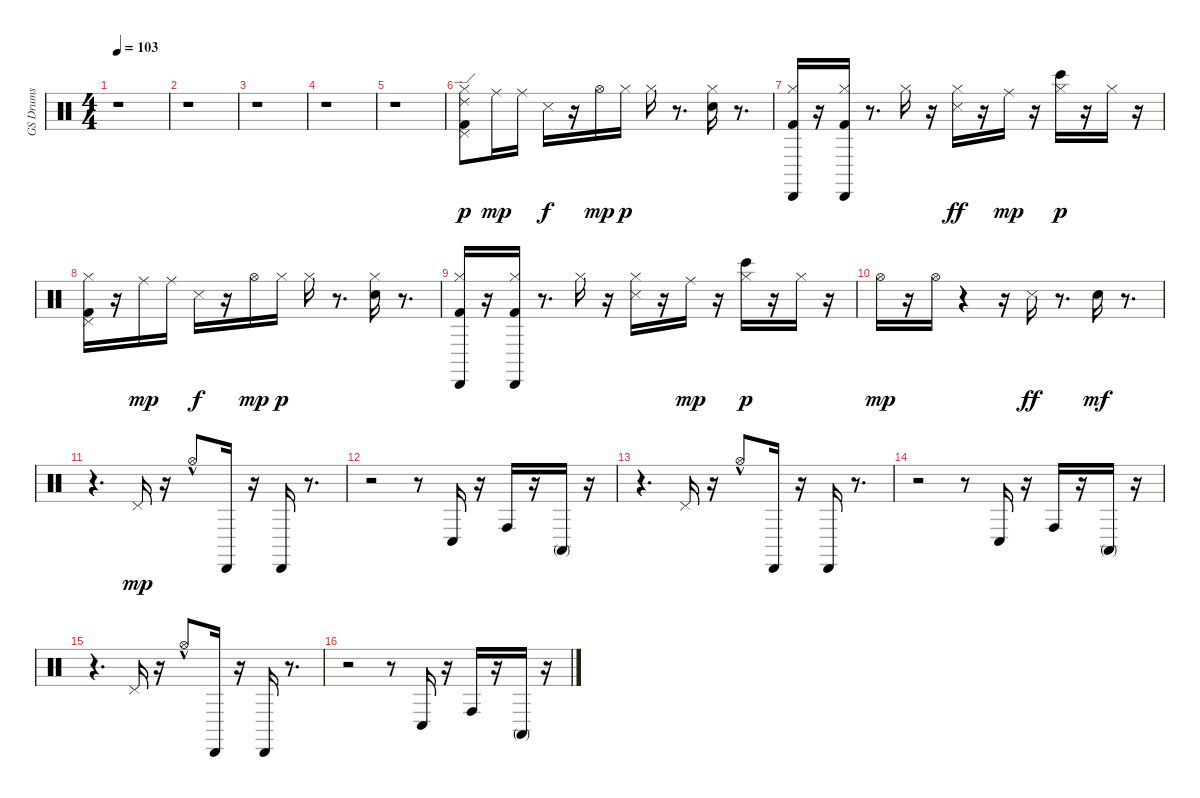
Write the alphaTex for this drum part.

\track ("GS Drums" "GS Drums") {instrument percussion}
\staff {score}
\articulation defaults
\ts (4 4)
\tempo 103
\clef neutral
\ks c
r.1{dy p} |
r.1 |
r.1 |
r.1 |
r.1 |
("Pedal Hi-Hat (hit)" "Ride (edge) 2" "Kick (hit) 2" "Hi-Hat (closed)").8 "Ride (middle)".16{dy mp} "Ride (middle)".16 "Snare (side stick) 3".16{dy f} r.16 "Hi-Hat (open)".16{dy mp} "Hi-Hat (closed)".16{dy p} "Hi-Hat (closed)".16 r.8{d} ("Snare (hit) 2" "Hi-Hat (closed)").16 r.8{d} |
("Cabasa (hit)" "Kick (hit) 2" "Hi-Hat (closed)").16 r.16 ("Cabasa (hit)" "Kick (hit) 2" "Hi-Hat (closed)").16 r.8{d} "Hi-Hat (closed)".16 r.16 ("Hi-Hat (closed)" "Snare (side stick) 3").16{dy ff} r.16 "Ride (middle)".16{dy mp} r.16 ("Bongo High (hit)" "Hi-Hat (closed)").16{dy p} r.16 "Hi-Hat (closed)".16 r.16 |
("Pedal Hi-Hat (hit)" "Kick (hit) 2" "Hi-Hat (closed)").16 r.16 "Ride (middle)".16{dy mp} "Ride (middle)".16 "Snare (side stick) 3".16{dy f} r.16 "Hi-Hat (open)".16{dy mp} "Hi-Hat (closed)".16{dy p} "Hi-Hat (closed)".16 r.8{d} ("Snare (hit) 2" "Hi-Hat (closed)").16 r.8{d} |
("Cabasa (hit)" "Kick (hit) 2" "Hi-Hat (closed)").16 r.16 ("Cabasa (hit)" "Kick (hit) 2" "Hi-Hat (closed)").16 r.8{d} "Hi-Hat (closed)".16 r.16 ("Hi-Hat (closed)" "Snare (side stick) 3").16 r.16 "Ride (middle)".16{dy mp} r.16 ("Bongo High (hit)" "Hi-Hat (closed)").16{dy p} r.16 "Hi-Hat (closed)".16 r.16 |
"Hi-Hat (open)".16{dy mp} r.16 "Hi-Hat (open)".16 r.4 r.16 "Snare (side stick) 3".16{dy ff} r.8{d} "Snare (hit) 2".16{dy mf} r.8{d} |
r.4{d} "Pedal Hi-Hat (hit)".16{dy mp} r.16 "Hi-Hat (open)"{hac}.8 "Cabasa (hit)".16 r.16 "Cabasa (hit)".16 r.8{d} |
r.2 r.8 "Conga low (hit)".16 r.16 "Conga high (hit)".16 r.16 "Conga high (mute)".16 r.16 |
r.4{d} "Pedal Hi-Hat (hit)".16 r.16 "Hi-Hat (open)"{hac}.8 "Cabasa (hit)".16 r.16 "Cabasa (hit)".16 r.8{d} |
r.2 r.8 "Conga low (hit)".16 r.16 "Conga high (hit)".16 r.16 "Conga high (mute)".16 r.16 |
r.4{d} "Pedal Hi-Hat (hit)".16 r.16 "Hi-Hat (open)"{hac}.8 "Cabasa (hit)".16 r.16 "Cabasa (hit)".16 r.8{d} |
r.2 r.8 "Conga low (hit)".16 r.16 "Conga high (hit)".16 r.16 "Conga high (mute)".16 r.16
